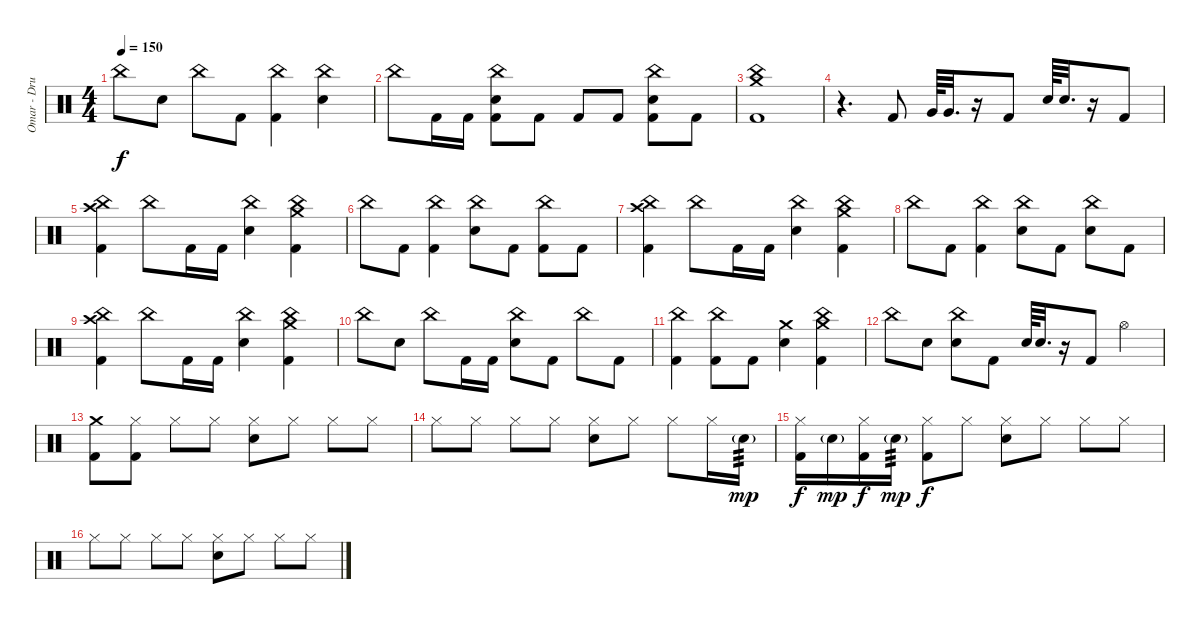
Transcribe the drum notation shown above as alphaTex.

\track ("Omar - Drums" "Omar - Dru") {instrument percussion}
\staff {score}
\articulation defaults
\ts (4 4)
\tempo 150
\clef neutral
\ks c "China (hit)".8{dy f} "Electric Snare (hit)".8 "China (hit)".8 "Kick (hit) 2".8
("China (hit)" "Kick (hit) 2").4 ("China (hit)" "Electric Snare (hit)").4 |
"China (hit)".8 "Kick (hit) 2".16 "Kick (hit) 2".16 ("China (hit)" "Electric Snare (hit)" "Kick (hit) 2").8 "Kick (hit) 2".8 "Kick (hit) 2".8 "Kick (hit) 2".8 ("China (hit)" "Electric Snare (hit)" "Kick (hit) 2").8 "Kick (hit) 2".8 |
("China (hit)" "Crash medium (hit)" "Kick (hit) 2").1 |
r.4{d} "Kick (hit) 2".8 "Very Low Tom (hit)".64 "Very Low Tom (hit)".32{d} r.16 "Kick (hit) 2".8 "Electric Snare (hit)".64 "Electric Snare (hit)".32{d} r.16 "Kick (hit) 2".8 |
("China (hit)" "Crash high (hit)" "Kick (hit) 2").4 "China (hit)".8 "Kick (hit) 2".16 "Kick (hit) 2".16 ("China (hit)" "Electric Snare (hit)").4 ("China (hit)" "Crash medium (hit)" "Kick (hit) 2").4 |
"China (hit)".8 "Kick (hit) 2".8 ("China (hit)" "Kick (hit) 2").4 ("China (hit)" "Electric Snare (hit)").8 "Kick (hit) 2".8 ("China (hit)" "Kick (hit) 2").8 "Kick (hit) 2".8 |
("China (hit)" "Crash high (hit)" "Kick (hit) 2").4 "China (hit)".8 "Kick (hit) 2".16 "Kick (hit) 2".16 ("China (hit)" "Electric Snare (hit)").4 ("China (hit)" "Crash medium (hit)" "Kick (hit) 2").4 |
"China (hit)".8 "Kick (hit) 2".8 ("China (hit)" "Kick (hit) 2").4 ("China (hit)" "Electric Snare (hit)").8 "Kick (hit) 2".8 ("China (hit)" "Electric Snare (hit)").8 "Kick (hit) 2".8 |
("China (hit)" "Crash high (hit)" "Kick (hit) 2").4 "China (hit)".8 "Kick (hit) 2".16 "Kick (hit) 2".16 ("China (hit)" "Electric Snare (hit)").4 ("China (hit)" "Crash medium (hit)" "Kick (hit) 2").4 |
"China (hit)".8 "Electric Snare (hit)".8 "China (hit)".8 "Kick (hit) 2".16 "Kick (hit) 2".16 ("China (hit)" "Electric Snare (hit)").8 "Kick (hit) 2".8 "China (hit)".8 "Kick (hit) 2".8 |
("China (hit)" "Kick (hit) 2").4 ("China (hit)" "Kick (hit) 2").8 "Kick (hit) 2".8 ("Crash medium (hit)" "Electric Snare (hit)").4 ("China (hit)" "Crash medium (hit)" "Kick (hit) 2").4 |
"China (hit)".8 "Electric Snare (hit)".8 ("China (hit)" "Electric Snare (hit)").8 "Kick (hit) 2".8 "Electric Snare (hit)".64 "Electric Snare (hit)".32{d} r.16 "Kick (hit) 2".8 "Hi-Hat (open)".4 |
("Crash medium (hit)" "Kick (hit) 2").8 ("Hi-Hat (closed)" "Kick (hit) 2").8 "Hi-Hat (closed)".8 "Hi-Hat (closed)".8 ("Hi-Hat (closed)" "Electric Snare (hit)").8 "Hi-Hat (closed)".8 "Hi-Hat (closed)".8 "Hi-Hat (closed)".8 |
"Hi-Hat (closed)".8 "Hi-Hat (closed)".8 "Hi-Hat (closed)".8 "Hi-Hat (closed)".8 ("Hi-Hat (closed)" "Electric Snare (hit)").8 "Hi-Hat (closed)".8 "Hi-Hat (closed)".8 "Hi-Hat (closed)".16 "Electric Snare (hit)"{g}.16{tp 3 dy mp} |
("Hi-Hat (closed)" "Kick (hit) 2").16{dy f} "Electric Snare (hit)"{g}.16{dy mp} ("Hi-Hat (closed)" "Kick (hit) 2").16{dy f} "Electric Snare (hit)"{g}.16{tp 3 dy mp} ("Hi-Hat (closed)" "Kick (hit) 2").8{dy f} "Hi-Hat (closed)".8 ("Hi-Hat (closed)" "Electric Snare (hit)").8 "Hi-Hat (closed)".8 "Hi-Hat (closed)".8 "Hi-Hat (closed)".8 |
"Hi-Hat (closed)".8 "Hi-Hat (closed)".8 "Hi-Hat (closed)".8 "Hi-Hat (closed)".8 ("Hi-Hat (closed)" "Electric Snare (hit)").8 "Hi-Hat (closed)".8 "Hi-Hat (closed)".8 "Hi-Hat (closed)".8
